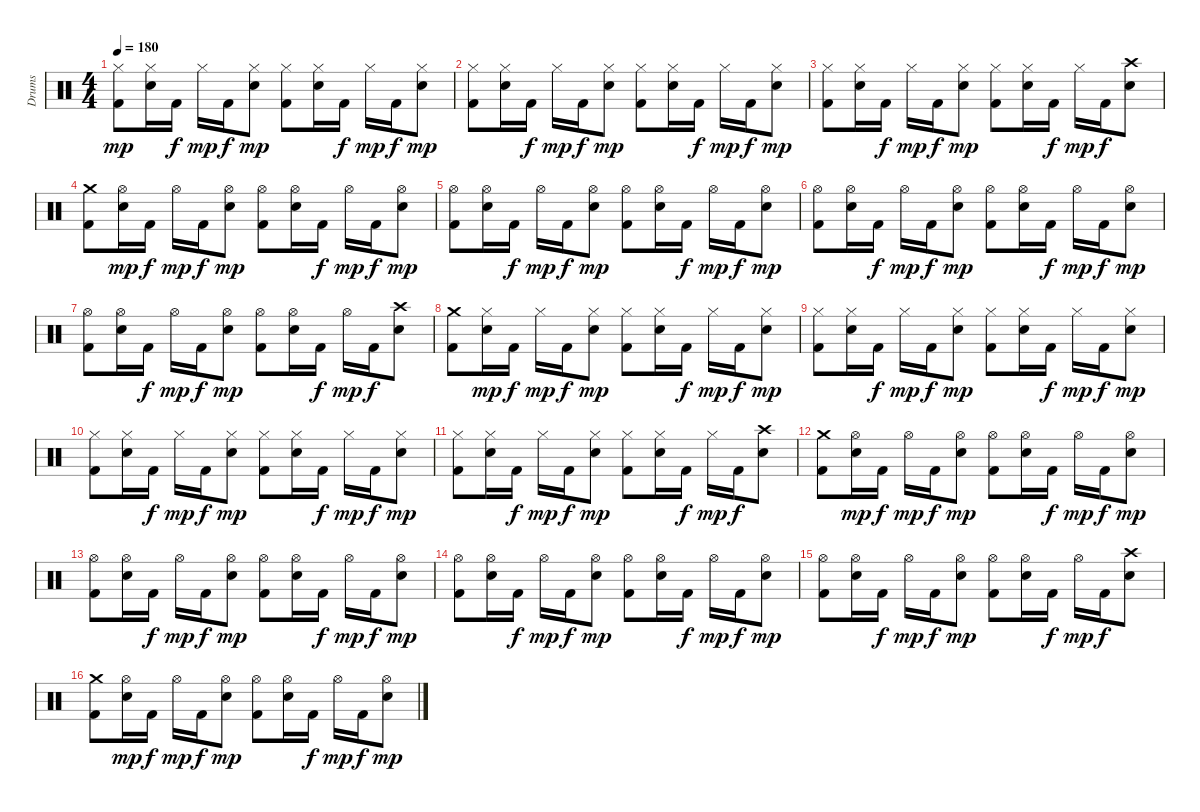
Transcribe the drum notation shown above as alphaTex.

\track ("Drums" "Drums") {instrument percussion}
\staff {score}
\articulation defaults
\ts (4 4)
\tempo 180
\clef neutral
\ks c
("Hi-Hat (closed)" "Kick (hit) 2").8{dy mp} ("Hi-Hat (closed)" "Snare (hit) 2").16 "Kick (hit) 2".16{dy f} "Hi-Hat (closed)".16{dy mp} "Kick (hit) 2".16{dy f} ("Hi-Hat (closed)" "Snare (hit) 2").8{dy mp} ("Hi-Hat (closed)" "Kick (hit) 2").8 ("Hi-Hat (closed)" "Snare (hit) 2").16 "Kick (hit) 2".16{dy f} "Hi-Hat (closed)".16{dy mp} "Kick (hit) 2".16{dy f} ("Hi-Hat (closed)" "Snare (hit) 2").8{dy mp} |
("Hi-Hat (closed)" "Kick (hit) 2").8 ("Hi-Hat (closed)" "Snare (hit) 2").16 "Kick (hit) 2".16{dy f} "Hi-Hat (closed)".16{dy mp} "Kick (hit) 2".16{dy f} ("Hi-Hat (closed)" "Snare (hit) 2").8{dy mp} ("Hi-Hat (closed)" "Kick (hit) 2").8 ("Hi-Hat (closed)" "Snare (hit) 2").16 "Kick (hit) 2".16{dy f} "Hi-Hat (closed)".16{dy mp} "Kick (hit) 2".16{dy f} ("Hi-Hat (closed)" "Snare (hit) 2").8{dy mp} |
("Hi-Hat (closed)" "Kick (hit) 2").8 ("Hi-Hat (closed)" "Snare (hit) 2").16 "Kick (hit) 2".16{dy f} "Hi-Hat (closed)".16{dy mp} "Kick (hit) 2".16{dy f} ("Hi-Hat (closed)" "Snare (hit) 2").8{dy mp} ("Hi-Hat (closed)" "Kick (hit) 2").8 ("Hi-Hat (closed)" "Snare (hit) 2").16 "Kick (hit) 2".16{dy f} "Hi-Hat (closed)".16{dy mp} "Kick (hit) 2".16{dy f} ("Crash high (hit)" "Snare (hit) 2").8 |
("Crash medium (hit)" "Kick (hit) 2").8 ("Hi-Hat (open)" "Snare (hit) 2").16{dy mp} "Kick (hit) 2".16{dy f} "Hi-Hat (open)".16{dy mp} "Kick (hit) 2".16{dy f} ("Hi-Hat (open)" "Snare (hit) 2").8{dy mp} ("Hi-Hat (open)" "Kick (hit) 2").8 ("Hi-Hat (open)" "Snare (hit) 2").16 "Kick (hit) 2".16{dy f} "Hi-Hat (open)".16{dy mp} "Kick (hit) 2".16{dy f} ("Hi-Hat (open)" "Snare (hit) 2").8{dy mp} |
("Hi-Hat (open)" "Kick (hit) 2").8 ("Hi-Hat (open)" "Snare (hit) 2").16 "Kick (hit) 2".16{dy f} "Hi-Hat (open)".16{dy mp} "Kick (hit) 2".16{dy f} ("Hi-Hat (open)" "Snare (hit) 2").8{dy mp} ("Hi-Hat (open)" "Kick (hit) 2").8 ("Hi-Hat (open)" "Snare (hit) 2").16 "Kick (hit) 2".16{dy f} "Hi-Hat (open)".16{dy mp} "Kick (hit) 2".16{dy f} ("Hi-Hat (open)" "Snare (hit) 2").8{dy mp} |
("Hi-Hat (open)" "Kick (hit) 2").8 ("Hi-Hat (open)" "Snare (hit) 2").16 "Kick (hit) 2".16{dy f} "Hi-Hat (open)".16{dy mp} "Kick (hit) 2".16{dy f} ("Hi-Hat (open)" "Snare (hit) 2").8{dy mp} ("Hi-Hat (open)" "Kick (hit) 2").8 ("Hi-Hat (open)" "Snare (hit) 2").16 "Kick (hit) 2".16{dy f} "Hi-Hat (open)".16{dy mp} "Kick (hit) 2".16{dy f} ("Hi-Hat (open)" "Snare (hit) 2").8{dy mp} |
("Hi-Hat (open)" "Kick (hit) 2").8 ("Hi-Hat (open)" "Snare (hit) 2").16 "Kick (hit) 2".16{dy f} "Hi-Hat (open)".16{dy mp} "Kick (hit) 2".16{dy f} ("Hi-Hat (open)" "Snare (hit) 2").8{dy mp} ("Hi-Hat (open)" "Kick (hit) 2").8 ("Hi-Hat (open)" "Snare (hit) 2").16 "Kick (hit) 2".16{dy f} "Hi-Hat (open)".16{dy mp} "Kick (hit) 2".16{dy f} ("Crash high (hit)" "Snare (hit) 2").8 |
("Crash medium (hit)" "Kick (hit) 2").8 ("Hi-Hat (closed)" "Snare (hit) 2").16{dy mp} "Kick (hit) 2".16{dy f} "Hi-Hat (closed)".16{dy mp} "Kick (hit) 2".16{dy f} ("Hi-Hat (closed)" "Snare (hit) 2").8{dy mp} ("Hi-Hat (closed)" "Kick (hit) 2").8 ("Hi-Hat (closed)" "Snare (hit) 2").16 "Kick (hit) 2".16{dy f} "Hi-Hat (closed)".16{dy mp} "Kick (hit) 2".16{dy f} ("Hi-Hat (closed)" "Snare (hit) 2").8{dy mp} |
("Hi-Hat (closed)" "Kick (hit) 2").8 ("Hi-Hat (closed)" "Snare (hit) 2").16 "Kick (hit) 2".16{dy f} "Hi-Hat (closed)".16{dy mp} "Kick (hit) 2".16{dy f} ("Hi-Hat (closed)" "Snare (hit) 2").8{dy mp} ("Hi-Hat (closed)" "Kick (hit) 2").8 ("Hi-Hat (closed)" "Snare (hit) 2").16 "Kick (hit) 2".16{dy f} "Hi-Hat (closed)".16{dy mp} "Kick (hit) 2".16{dy f} ("Hi-Hat (closed)" "Snare (hit) 2").8{dy mp} |
("Hi-Hat (closed)" "Kick (hit) 2").8 ("Hi-Hat (closed)" "Snare (hit) 2").16 "Kick (hit) 2".16{dy f} "Hi-Hat (closed)".16{dy mp} "Kick (hit) 2".16{dy f} ("Hi-Hat (closed)" "Snare (hit) 2").8{dy mp} ("Hi-Hat (closed)" "Kick (hit) 2").8 ("Hi-Hat (closed)" "Snare (hit) 2").16 "Kick (hit) 2".16{dy f} "Hi-Hat (closed)".16{dy mp} "Kick (hit) 2".16{dy f} ("Hi-Hat (closed)" "Snare (hit) 2").8{dy mp} |
("Hi-Hat (closed)" "Kick (hit) 2").8 ("Hi-Hat (closed)" "Snare (hit) 2").16 "Kick (hit) 2".16{dy f} "Hi-Hat (closed)".16{dy mp} "Kick (hit) 2".16{dy f} ("Hi-Hat (closed)" "Snare (hit) 2").8{dy mp} ("Hi-Hat (closed)" "Kick (hit) 2").8 ("Hi-Hat (closed)" "Snare (hit) 2").16 "Kick (hit) 2".16{dy f} "Hi-Hat (closed)".16{dy mp} "Kick (hit) 2".16{dy f} ("Crash high (hit)" "Snare (hit) 2").8 |
("Crash medium (hit)" "Kick (hit) 2").8 ("Hi-Hat (open)" "Snare (hit) 2").16{dy mp} "Kick (hit) 2".16{dy f} "Hi-Hat (open)".16{dy mp} "Kick (hit) 2".16{dy f} ("Hi-Hat (open)" "Snare (hit) 2").8{dy mp} ("Hi-Hat (open)" "Kick (hit) 2").8 ("Hi-Hat (open)" "Snare (hit) 2").16 "Kick (hit) 2".16{dy f} "Hi-Hat (open)".16{dy mp} "Kick (hit) 2".16{dy f} ("Hi-Hat (open)" "Snare (hit) 2").8{dy mp} |
("Hi-Hat (open)" "Kick (hit) 2").8 ("Hi-Hat (open)" "Snare (hit) 2").16 "Kick (hit) 2".16{dy f} "Hi-Hat (open)".16{dy mp} "Kick (hit) 2".16{dy f} ("Hi-Hat (open)" "Snare (hit) 2").8{dy mp} ("Hi-Hat (open)" "Kick (hit) 2").8 ("Hi-Hat (open)" "Snare (hit) 2").16 "Kick (hit) 2".16{dy f} "Hi-Hat (open)".16{dy mp} "Kick (hit) 2".16{dy f} ("Hi-Hat (open)" "Snare (hit) 2").8{dy mp} |
("Hi-Hat (open)" "Kick (hit) 2").8 ("Hi-Hat (open)" "Snare (hit) 2").16 "Kick (hit) 2".16{dy f} "Hi-Hat (open)".16{dy mp} "Kick (hit) 2".16{dy f} ("Hi-Hat (open)" "Snare (hit) 2").8{dy mp} ("Hi-Hat (open)" "Kick (hit) 2").8 ("Hi-Hat (open)" "Snare (hit) 2").16 "Kick (hit) 2".16{dy f} "Hi-Hat (open)".16{dy mp} "Kick (hit) 2".16{dy f} ("Hi-Hat (open)" "Snare (hit) 2").8{dy mp} |
("Hi-Hat (open)" "Kick (hit) 2").8 ("Hi-Hat (open)" "Snare (hit) 2").16 "Kick (hit) 2".16{dy f} "Hi-Hat (open)".16{dy mp} "Kick (hit) 2".16{dy f} ("Hi-Hat (open)" "Snare (hit) 2").8{dy mp} ("Hi-Hat (open)" "Kick (hit) 2").8 ("Hi-Hat (open)" "Snare (hit) 2").16 "Kick (hit) 2".16{dy f} "Hi-Hat (open)".16{dy mp} "Kick (hit) 2".16{dy f} ("Crash high (hit)" "Snare (hit) 2").8 |
("Crash medium (hit)" "Kick (hit) 2").8 ("Hi-Hat (open)" "Snare (hit) 2").16{dy mp} "Kick (hit) 2".16{dy f} "Hi-Hat (open)".16{dy mp} "Kick (hit) 2".16{dy f} ("Hi-Hat (open)" "Snare (hit) 2").8{dy mp} ("Hi-Hat (open)" "Kick (hit) 2").8 ("Hi-Hat (open)" "Snare (hit) 2").16 "Kick (hit) 2".16{dy f} "Hi-Hat (open)".16{dy mp} "Kick (hit) 2".16{dy f} ("Hi-Hat (open)" "Snare (hit) 2").8{dy mp}
